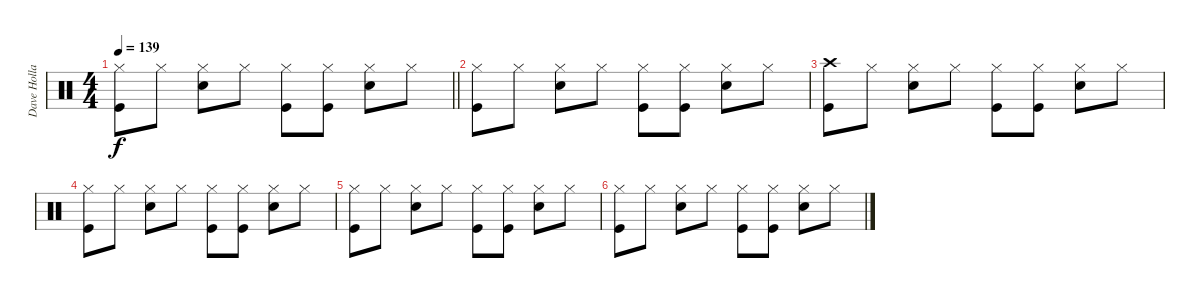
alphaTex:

\track ("Dave Holland" "Dave Holla") {instrument percussion}
\staff {score}
\articulation defaults
\ts (4 4)
\tempo 139
\clef neutral
\barLineRight lightlight
\ks c
("Hi-Hat (closed)" "Kick (hit)").8{dy f} "Hi-Hat (closed)".8 ("Hi-Hat (closed)" "Electric Snare (hit)").8 "Hi-Hat (closed)".8 ("Hi-Hat (closed)" "Kick (hit)").8 ("Hi-Hat (closed)" "Kick (hit)").8 ("Hi-Hat (closed)" "Electric Snare (hit)").8 "Hi-Hat (closed)".8 |
("Hi-Hat (closed)" "Kick (hit)").8 "Hi-Hat (closed)".8 ("Hi-Hat (closed)" "Electric Snare (hit)").8 "Hi-Hat (closed)".8 ("Hi-Hat (closed)" "Kick (hit)").8 ("Hi-Hat (closed)" "Kick (hit)").8 ("Hi-Hat (closed)" "Electric Snare (hit)").8 "Hi-Hat (closed)".8 |
("Crash high (hit)" "Kick (hit)").8 "Hi-Hat (closed)".8 ("Hi-Hat (closed)" "Electric Snare (hit)").8 "Hi-Hat (closed)".8 ("Hi-Hat (closed)" "Kick (hit)").8 ("Hi-Hat (closed)" "Kick (hit)").8 ("Hi-Hat (closed)" "Electric Snare (hit)").8 "Hi-Hat (closed)".8 |
("Hi-Hat (closed)" "Kick (hit)").8 "Hi-Hat (closed)".8 ("Hi-Hat (closed)" "Electric Snare (hit)").8 "Hi-Hat (closed)".8 ("Hi-Hat (closed)" "Kick (hit)").8 ("Hi-Hat (closed)" "Kick (hit)").8 ("Hi-Hat (closed)" "Electric Snare (hit)").8 "Hi-Hat (closed)".8 |
("Hi-Hat (closed)" "Kick (hit)").8 "Hi-Hat (closed)".8 ("Hi-Hat (closed)" "Electric Snare (hit)").8 "Hi-Hat (closed)".8 ("Hi-Hat (closed)" "Kick (hit)").8 ("Hi-Hat (closed)" "Kick (hit)").8 ("Hi-Hat (closed)" "Electric Snare (hit)").8 "Hi-Hat (closed)".8 |
("Hi-Hat (closed)" "Kick (hit)").8 "Hi-Hat (closed)".8 ("Hi-Hat (closed)" "Electric Snare (hit)").8 "Hi-Hat (closed)".8 ("Hi-Hat (closed)" "Kick (hit)").8 ("Hi-Hat (closed)" "Kick (hit)").8 ("Hi-Hat (closed)" "Electric Snare (hit)").8 "Hi-Hat (closed)".8
